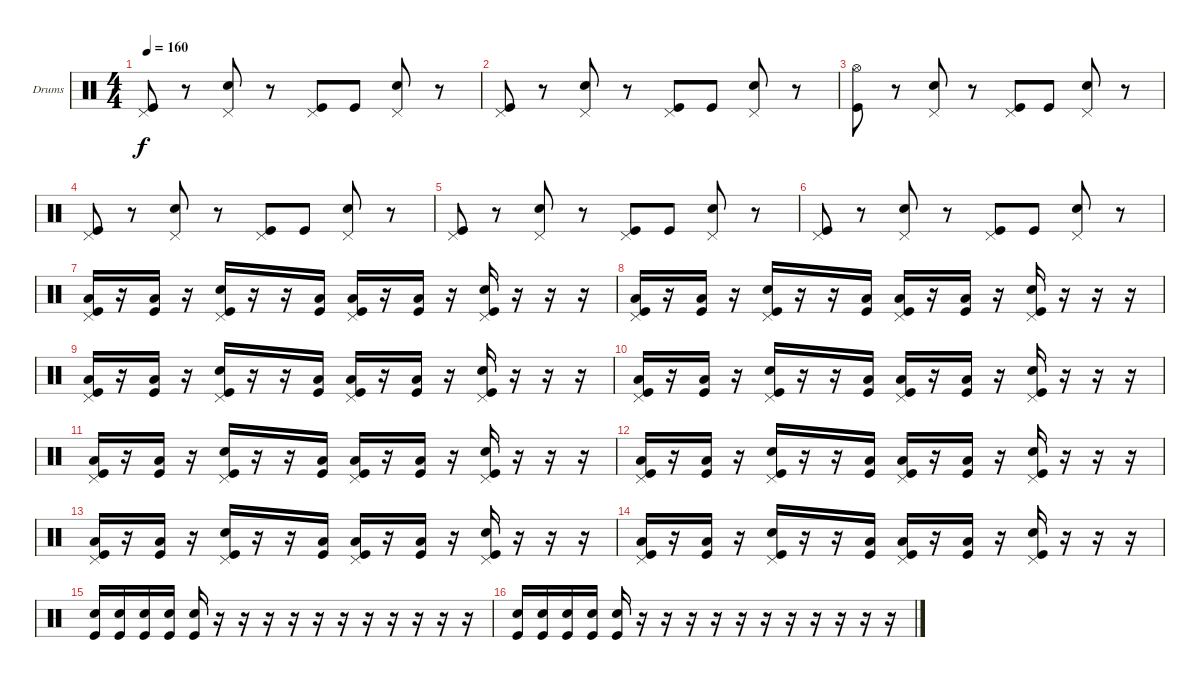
\defaultSystemsLayout 4
\bracketExtendMode groupsimilarinstruments
\firstSystemTrackNameOrientation horizontal
\otherSystemsTrackNameOrientation horizontal
\track ("Drumkit" "Drums") {solo instrument percussion}
\staff {score}
\articulation defaults
\ts (4 4)
\tempo 160
\clef neutral
\ks c
("Pedal Hi-Hat (hit)" "Kick (hit)").8{dy f} r.8 ("Pedal Hi-Hat (hit)" "Snare (hit) 2").8 r.8 ("Pedal Hi-Hat (hit)" "Kick (hit)").8 "Kick (hit)".8 ("Pedal Hi-Hat (hit)" "Snare (hit) 2").8 r.8 |
("Pedal Hi-Hat (hit)" "Kick (hit)").8 r.8 ("Pedal Hi-Hat (hit)" "Snare (hit) 2").8 r.8 ("Pedal Hi-Hat (hit)" "Kick (hit)").8 "Kick (hit)".8 ("Pedal Hi-Hat (hit)" "Snare (hit) 2").8 r.8 |
("Hi-Hat (open)" "Kick (hit)").8 r.8 ("Pedal Hi-Hat (hit)" "Snare (hit) 2").8 r.8 ("Pedal Hi-Hat (hit)" "Kick (hit)").8 "Kick (hit)".8 ("Pedal Hi-Hat (hit)" "Snare (hit) 2").8 r.8 |
("Pedal Hi-Hat (hit)" "Kick (hit)").8 r.8 ("Pedal Hi-Hat (hit)" "Snare (hit) 2").8 r.8 ("Pedal Hi-Hat (hit)" "Kick (hit)").8 "Kick (hit)".8 ("Pedal Hi-Hat (hit)" "Snare (hit) 2").8 r.8 |
("Pedal Hi-Hat (hit)" "Kick (hit)").8 r.8 ("Pedal Hi-Hat (hit)" "Snare (hit) 2").8 r.8 ("Pedal Hi-Hat (hit)" "Kick (hit)").8 "Kick (hit)".8 ("Pedal Hi-Hat (hit)" "Snare (hit) 2").8 r.8 |
("Pedal Hi-Hat (hit)" "Kick (hit)").8 r.8 ("Pedal Hi-Hat (hit)" "Snare (hit) 2").8 r.8 ("Pedal Hi-Hat (hit)" "Kick (hit)").8 "Kick (hit)".8 ("Pedal Hi-Hat (hit)" "Snare (hit) 2").8 r.8 |
("Pedal Hi-Hat (hit)" "Low Tom (hit)" "Kick (hit)").16 r.16 ("Low Tom (hit)" "Kick (hit)").16 r.16 ("Pedal Hi-Hat (hit)" "Snare (hit) 2" "Kick (hit)").16 r.16 r.16 ("Low Tom (hit)" "Kick (hit)").16 ("Pedal Hi-Hat (hit)" "Low Tom (hit)" "Kick (hit)").16 r.16 ("Low Tom (hit)" "Kick (hit)").16 r.16 ("Pedal Hi-Hat (hit)" "Snare (hit) 2" "Kick (hit)").16 r.16 r.16 r.16 |
("Pedal Hi-Hat (hit)" "Low Tom (hit)" "Kick (hit)").16 r.16 ("Low Tom (hit)" "Kick (hit)").16 r.16 ("Pedal Hi-Hat (hit)" "Snare (hit) 2" "Kick (hit)").16 r.16 r.16 ("Low Tom (hit)" "Kick (hit)").16 ("Pedal Hi-Hat (hit)" "Low Tom (hit)" "Kick (hit)").16 r.16 ("Low Tom (hit)" "Kick (hit)").16 r.16 ("Pedal Hi-Hat (hit)" "Snare (hit) 2" "Kick (hit)").16 r.16 r.16 r.16 |
("Pedal Hi-Hat (hit)" "Low Tom (hit)" "Kick (hit)").16 r.16 ("Low Tom (hit)" "Kick (hit)").16 r.16 ("Pedal Hi-Hat (hit)" "Snare (hit) 2" "Kick (hit)").16 r.16 r.16 ("Low Tom (hit)" "Kick (hit)").16 ("Pedal Hi-Hat (hit)" "Low Tom (hit)" "Kick (hit)").16 r.16 ("Low Tom (hit)" "Kick (hit)").16 r.16 ("Pedal Hi-Hat (hit)" "Snare (hit) 2" "Kick (hit)").16 r.16 r.16 r.16 |
("Pedal Hi-Hat (hit)" "Low Tom (hit)" "Kick (hit)").16 r.16 ("Low Tom (hit)" "Kick (hit)").16 r.16 ("Pedal Hi-Hat (hit)" "Snare (hit) 2" "Kick (hit)").16 r.16 r.16 ("Low Tom (hit)" "Kick (hit)").16 ("Pedal Hi-Hat (hit)" "Low Tom (hit)" "Kick (hit)").16 r.16 ("Low Tom (hit)" "Kick (hit)").16 r.16 ("Pedal Hi-Hat (hit)" "Snare (hit) 2" "Kick (hit)").16 r.16 r.16 r.16 |
("Pedal Hi-Hat (hit)" "Low Tom (hit)" "Kick (hit)").16 r.16 ("Low Tom (hit)" "Kick (hit)").16 r.16 ("Pedal Hi-Hat (hit)" "Snare (hit) 2" "Kick (hit)").16 r.16 r.16 ("Low Tom (hit)" "Kick (hit)").16 ("Pedal Hi-Hat (hit)" "Low Tom (hit)" "Kick (hit)").16 r.16 ("Low Tom (hit)" "Kick (hit)").16 r.16 ("Pedal Hi-Hat (hit)" "Snare (hit) 2" "Kick (hit)").16 r.16 r.16 r.16 |
("Pedal Hi-Hat (hit)" "Low Tom (hit)" "Kick (hit)").16 r.16 ("Low Tom (hit)" "Kick (hit)").16 r.16 ("Pedal Hi-Hat (hit)" "Snare (hit) 2" "Kick (hit)").16 r.16 r.16 ("Low Tom (hit)" "Kick (hit)").16 ("Pedal Hi-Hat (hit)" "Low Tom (hit)" "Kick (hit)").16 r.16 ("Low Tom (hit)" "Kick (hit)").16 r.16 ("Pedal Hi-Hat (hit)" "Snare (hit) 2" "Kick (hit)").16 r.16 r.16 r.16 |
("Pedal Hi-Hat (hit)" "Low Tom (hit)" "Kick (hit)").16 r.16 ("Low Tom (hit)" "Kick (hit)").16 r.16 ("Pedal Hi-Hat (hit)" "Snare (hit) 2" "Kick (hit)").16 r.16 r.16 ("Low Tom (hit)" "Kick (hit)").16 ("Pedal Hi-Hat (hit)" "Low Tom (hit)" "Kick (hit)").16 r.16 ("Low Tom (hit)" "Kick (hit)").16 r.16 ("Pedal Hi-Hat (hit)" "Snare (hit) 2" "Kick (hit)").16 r.16 r.16 r.16 |
("Pedal Hi-Hat (hit)" "Low Tom (hit)" "Kick (hit)").16 r.16 ("Low Tom (hit)" "Kick (hit)").16 r.16 ("Pedal Hi-Hat (hit)" "Snare (hit) 2" "Kick (hit)").16 r.16 r.16 ("Low Tom (hit)" "Kick (hit)").16 ("Pedal Hi-Hat (hit)" "Low Tom (hit)" "Kick (hit)").16 r.16 ("Low Tom (hit)" "Kick (hit)").16 r.16 ("Pedal Hi-Hat (hit)" "Snare (hit) 2" "Kick (hit)").16 r.16 r.16 r.16 |
("Snare (hit) 2" "Kick (hit)").16 ("Snare (hit) 2" "Kick (hit)").16 ("Snare (hit) 2" "Kick (hit)").16 ("Snare (hit) 2" "Kick (hit)").16 ("Snare (hit) 2" "Kick (hit)").16 r.16 r.16 r.16 r.16 r.16 r.16 r.16 r.16 r.16 r.16 r.16 |
("Snare (hit) 2" "Kick (hit)").16 ("Snare (hit) 2" "Kick (hit)").16 ("Snare (hit) 2" "Kick (hit)").16 ("Snare (hit) 2" "Kick (hit)").16 ("Snare (hit) 2" "Kick (hit)").16 r.16 r.16 r.16 r.16 r.16 r.16 r.16 r.16 r.16 r.16 r.16
